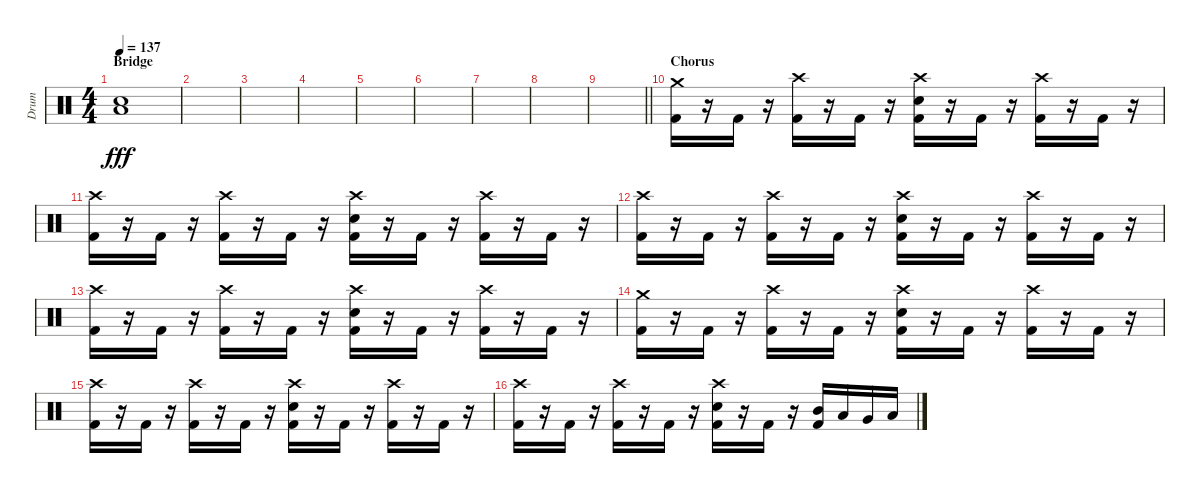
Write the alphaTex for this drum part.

\track ("Drum" "Drum") {instrument percussion}
\staff {score}
\articulation defaults
\ts (4 4)
\section ("" "Bridge")
\tempo 137
\clef neutral
\ks c
("Low Floor Tom (hit)" "Electric Snare (hit)").1{dy fff} |
|
|
|
|
|
|
|
\barLineRight lightlight
|
\section ("" "Chorus")
("Crash medium (hit)" "Kick (hit) 2").16 r.16 "Kick (hit) 2".16 r.16 ("Crash high (hit)" "Kick (hit) 2").16 r.16 "Kick (hit) 2".16 r.16 ("Crash high (hit)" "Electric Snare (hit)" "Kick (hit) 2").16 r.16 "Kick (hit) 2".16 r.16 ("Crash high (hit)" "Kick (hit) 2").16 r.16 "Kick (hit) 2".16 r.16 |
("Crash high (hit)" "Kick (hit) 2").16 r.16 "Kick (hit) 2".16 r.16 ("Crash high (hit)" "Kick (hit) 2").16 r.16 "Kick (hit) 2".16 r.16 ("Crash high (hit)" "Electric Snare (hit)" "Kick (hit) 2").16 r.16 "Kick (hit) 2".16 r.16 ("Crash high (hit)" "Kick (hit) 2").16 r.16 "Kick (hit) 2".16 r.16 |
("Crash high (hit)" "Kick (hit) 2").16 r.16 "Kick (hit) 2".16 r.16 ("Crash high (hit)" "Kick (hit) 2").16 r.16 "Kick (hit) 2".16 r.16 ("Crash high (hit)" "Electric Snare (hit)" "Kick (hit) 2").16 r.16 "Kick (hit) 2".16 r.16 ("Crash high (hit)" "Kick (hit) 2").16 r.16 "Kick (hit) 2".16 r.16 |
("Crash high (hit)" "Kick (hit) 2").16 r.16 "Kick (hit) 2".16 r.16 ("Crash high (hit)" "Kick (hit) 2").16 r.16 "Kick (hit) 2".16 r.16 ("Crash high (hit)" "Electric Snare (hit)" "Kick (hit) 2").16 r.16 "Kick (hit) 2".16 r.16 ("Crash high (hit)" "Kick (hit) 2").16 r.16 "Kick (hit) 2".16 r.16 |
("Crash medium (hit)" "Kick (hit) 2").16 r.16 "Kick (hit) 2".16 r.16 ("Crash high (hit)" "Kick (hit) 2").16 r.16 "Kick (hit) 2".16 r.16 ("Crash high (hit)" "Electric Snare (hit)" "Kick (hit) 2").16 r.16 "Kick (hit) 2".16 r.16 ("Crash high (hit)" "Kick (hit) 2").16 r.16 "Kick (hit) 2".16 r.16 |
("Crash high (hit)" "Kick (hit) 2").16 r.16 "Kick (hit) 2".16 r.16 ("Crash high (hit)" "Kick (hit) 2").16 r.16 "Kick (hit) 2".16 r.16 ("Crash high (hit)" "Electric Snare (hit)" "Kick (hit) 2").16 r.16 "Kick (hit) 2".16 r.16 ("Crash high (hit)" "Kick (hit) 2").16 r.16 "Kick (hit) 2".16 r.16 |
("Crash high (hit)" "Kick (hit) 2").16 r.16 "Kick (hit) 2".16 r.16 ("Crash high (hit)" "Kick (hit) 2").16 r.16 "Kick (hit) 2".16 r.16 ("Crash high (hit)" "Electric Snare (hit)" "Kick (hit) 2").16 r.16 "Kick (hit) 2".16 r.16 ("Mid Tom (hit)" "Kick (hit) 2").16 "Low Tom (hit)".16 "Very Low Tom (hit)".16 "Low Floor Tom (hit)".16
